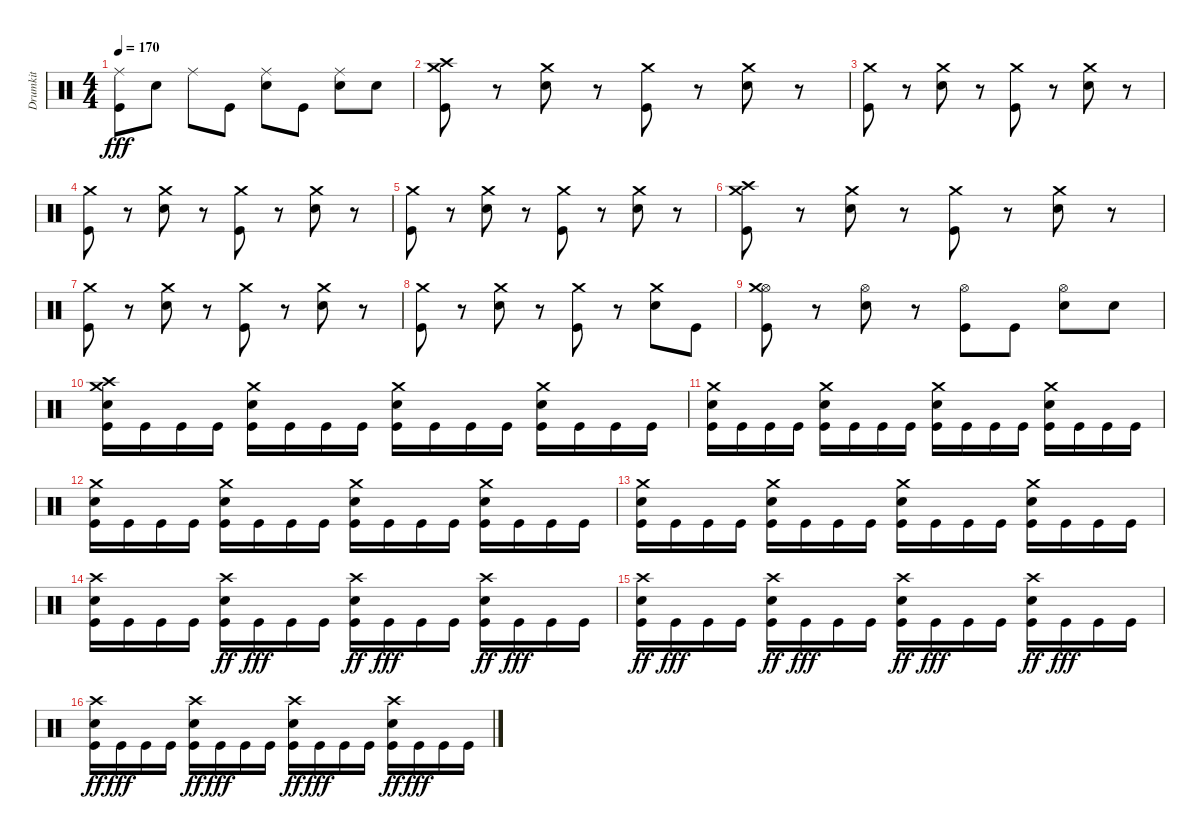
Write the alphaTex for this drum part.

\track ("Drumkit" "Drumkit") {instrument percussion}
\staff {score}
\articulation defaults
\ts (4 4)
\tempo 170
\clef neutral
\ks c
("Ride (middle)" "Kick (hit)").8{dy fff} "Snare (hit) 2".8 "Ride (middle)".8 "Kick (hit)".8 ("Ride (middle)" "Snare (hit) 2").8 "Kick (hit)".8 ("Ride (middle)" "Snare (hit) 2").8 "Snare (hit) 2".8 |
("Crash medium (hit)" "Crash high (hit)" "Kick (hit)").8 r.8 ("Crash medium (hit)" "Snare (hit) 2").8 r.8 ("Crash medium (hit)" "Kick (hit)").8 r.8 ("Crash medium (hit)" "Snare (hit) 2").8 r.8 |
("Crash medium (hit)" "Kick (hit)").8 r.8 ("Crash medium (hit)" "Snare (hit) 2").8 r.8 ("Crash medium (hit)" "Kick (hit)").8 r.8 ("Crash medium (hit)" "Snare (hit) 2").8 r.8 |
("Crash medium (hit)" "Kick (hit)").8 r.8 ("Crash medium (hit)" "Snare (hit) 2").8 r.8 ("Crash medium (hit)" "Kick (hit)").8 r.8 ("Crash medium (hit)" "Snare (hit) 2").8 r.8 |
("Crash medium (hit)" "Kick (hit)").8 r.8 ("Crash medium (hit)" "Snare (hit) 2").8 r.8 ("Crash medium (hit)" "Kick (hit)").8 r.8 ("Crash medium (hit)" "Snare (hit) 2").8 r.8 |
("Crash medium (hit)" "Crash high (hit)" "Kick (hit)").8 r.8 ("Crash medium (hit)" "Snare (hit) 2").8 r.8 ("Crash medium (hit)" "Kick (hit)").8 r.8 ("Crash medium (hit)" "Snare (hit) 2").8 r.8 |
("Crash medium (hit)" "Kick (hit)").8 r.8 ("Crash medium (hit)" "Snare (hit) 2").8 r.8 ("Crash medium (hit)" "Kick (hit)").8 r.8 ("Crash medium (hit)" "Snare (hit) 2").8 r.8 |
("Crash medium (hit)" "Kick (hit)").8 r.8 ("Crash medium (hit)" "Snare (hit) 2").8 r.8 ("Crash medium (hit)" "Kick (hit)").8 r.8 ("Crash medium (hit)" "Snare (hit) 2").8 "Kick (hit)".8 |
("Hi-Hat (open)" "Crash medium (hit)" "Kick (hit)").8 r.8 ("Hi-Hat (open)" "Snare (hit) 2").8 r.8 ("Hi-Hat (open)" "Kick (hit)").8 "Kick (hit)".8 ("Hi-Hat (open)" "Snare (hit) 2").8 "Snare (hit) 2".8 |
("Crash medium (hit)" "Crash high (hit)" "Snare (hit) 2" "Kick (hit)").16 "Kick (hit)".16 "Kick (hit)".16 "Kick (hit)".16 ("Crash medium (hit)" "Snare (hit) 2" "Kick (hit)").16 "Kick (hit)".16 "Kick (hit)".16 "Kick (hit)".16 ("Crash medium (hit)" "Snare (hit) 2" "Kick (hit)").16 "Kick (hit)".16 "Kick (hit)".16 "Kick (hit)".16 ("Crash medium (hit)" "Snare (hit) 2" "Kick (hit)").16 "Kick (hit)".16 "Kick (hit)".16 "Kick (hit)".16 |
("Crash medium (hit)" "Snare (hit) 2" "Kick (hit)").16 "Kick (hit)".16 "Kick (hit)".16 "Kick (hit)".16 ("Crash medium (hit)" "Snare (hit) 2" "Kick (hit)").16 "Kick (hit)".16 "Kick (hit)".16 "Kick (hit)".16 ("Crash medium (hit)" "Snare (hit) 2" "Kick (hit)").16 "Kick (hit)".16 "Kick (hit)".16 "Kick (hit)".16 ("Crash medium (hit)" "Snare (hit) 2" "Kick (hit)").16 "Kick (hit)".16 "Kick (hit)".16 "Kick (hit)".16 |
("Crash medium (hit)" "Snare (hit) 2" "Kick (hit)").16 "Kick (hit)".16 "Kick (hit)".16 "Kick (hit)".16 ("Crash medium (hit)" "Snare (hit) 2" "Kick (hit)").16 "Kick (hit)".16 "Kick (hit)".16 "Kick (hit)".16 ("Crash medium (hit)" "Snare (hit) 2" "Kick (hit)").16 "Kick (hit)".16 "Kick (hit)".16 "Kick (hit)".16 ("Crash medium (hit)" "Snare (hit) 2" "Kick (hit)").16 "Kick (hit)".16 "Kick (hit)".16 "Kick (hit)".16 |
("Crash medium (hit)" "Snare (hit) 2" "Kick (hit)").16 "Kick (hit)".16 "Kick (hit)".16 "Kick (hit)".16 ("Crash medium (hit)" "Snare (hit) 2" "Kick (hit)").16 "Kick (hit)".16 "Kick (hit)".16 "Kick (hit)".16 ("Crash medium (hit)" "Snare (hit) 2" "Kick (hit)").16 "Kick (hit)".16 "Kick (hit)".16 "Kick (hit)".16 ("Crash medium (hit)" "Snare (hit) 2" "Kick (hit)").16 "Kick (hit)".16 "Kick (hit)".16 "Kick (hit)".16 |
("Crash high (hit)" "Snare (hit) 2" "Kick (hit)").16 "Kick (hit)".16 "Kick (hit)".16 "Kick (hit)".16 ("Crash high (hit)" "Snare (hit) 2" "Kick (hit)").16{dy ff} "Kick (hit)".16{dy fff} "Kick (hit)".16 "Kick (hit)".16 ("Crash high (hit)" "Snare (hit) 2" "Kick (hit)").16{dy ff} "Kick (hit)".16{dy fff} "Kick (hit)".16 "Kick (hit)".16 ("Crash high (hit)" "Snare (hit) 2" "Kick (hit)").16{dy ff} "Kick (hit)".16{dy fff} "Kick (hit)".16 "Kick (hit)".16 |
("Crash high (hit)" "Snare (hit) 2" "Kick (hit)").16{dy ff} "Kick (hit)".16{dy fff} "Kick (hit)".16 "Kick (hit)".16 ("Crash high (hit)" "Snare (hit) 2" "Kick (hit)").16{dy ff} "Kick (hit)".16{dy fff} "Kick (hit)".16 "Kick (hit)".16 ("Crash high (hit)" "Snare (hit) 2" "Kick (hit)").16{dy ff} "Kick (hit)".16{dy fff} "Kick (hit)".16 "Kick (hit)".16 ("Crash high (hit)" "Snare (hit) 2" "Kick (hit)").16{dy ff} "Kick (hit)".16{dy fff} "Kick (hit)".16 "Kick (hit)".16 |
("Crash high (hit)" "Snare (hit) 2" "Kick (hit)").16{dy ff} "Kick (hit)".16{dy fff} "Kick (hit)".16 "Kick (hit)".16 ("Crash high (hit)" "Snare (hit) 2" "Kick (hit)").16{dy ff} "Kick (hit)".16{dy fff} "Kick (hit)".16 "Kick (hit)".16 ("Crash high (hit)" "Snare (hit) 2" "Kick (hit)").16{dy ff} "Kick (hit)".16{dy fff} "Kick (hit)".16 "Kick (hit)".16 ("Crash high (hit)" "Snare (hit) 2" "Kick (hit)").16{dy ff} "Kick (hit)".16{dy fff} "Kick (hit)".16 "Kick (hit)".16
